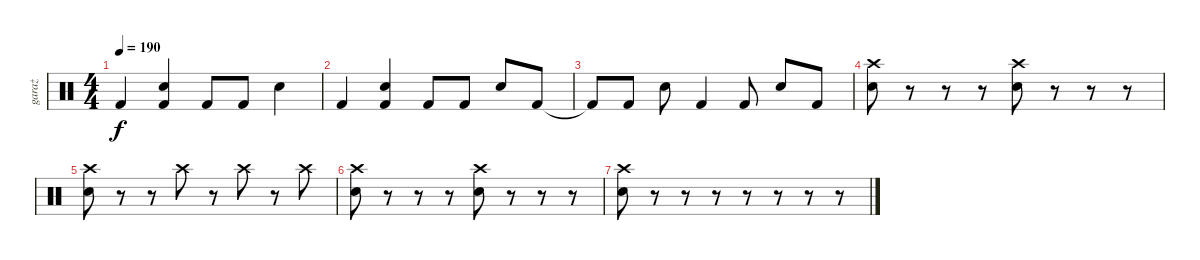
\track ("garaż" "garaż") {instrument percussion}
\staff {score}
\articulation defaults
\ts (4 4)
\tempo 190
\clef neutral
\ks c "Kick (hit) 2".4{dy f}
("Snare (hit) 2" "Kick (hit) 2").4 "Kick (hit) 2".8 "Kick (hit) 2".8 "Snare (hit) 2".4 |
"Kick (hit) 2".4 ("Snare (hit) 2" "Kick (hit) 2").4 "Kick (hit) 2".8 "Kick (hit) 2".8 "Snare (hit) 2".8 "Kick (hit) 2".8 |
"Kick (hit) 2"{t}.8 "Kick (hit) 2".8 "Snare (hit) 2".8 "Kick (hit) 2".4 "Kick (hit) 2".8 "Snare (hit) 2".8 "Kick (hit) 2".8 |
("Crash high (hit)" "Snare (hit) 2").8 r.8 r.8 r.8 ("Crash high (hit)" "Snare (hit) 2").8 r.8 r.8 r.8 |
("Crash high (hit)" "Snare (hit) 2").8 r.8 r.8 "Crash high (hit)".8 r.8 "Crash high (hit)".8 r.8 "Crash high (hit)".8 |
("Crash high (hit)" "Snare (hit) 2").8 r.8 r.8 r.8 ("Crash high (hit)" "Snare (hit) 2").8 r.8 r.8 r.8 |
("Crash high (hit)" "Snare (hit) 2").8 r.8 r.8 r.8 r.8 r.8 r.8 r.8
